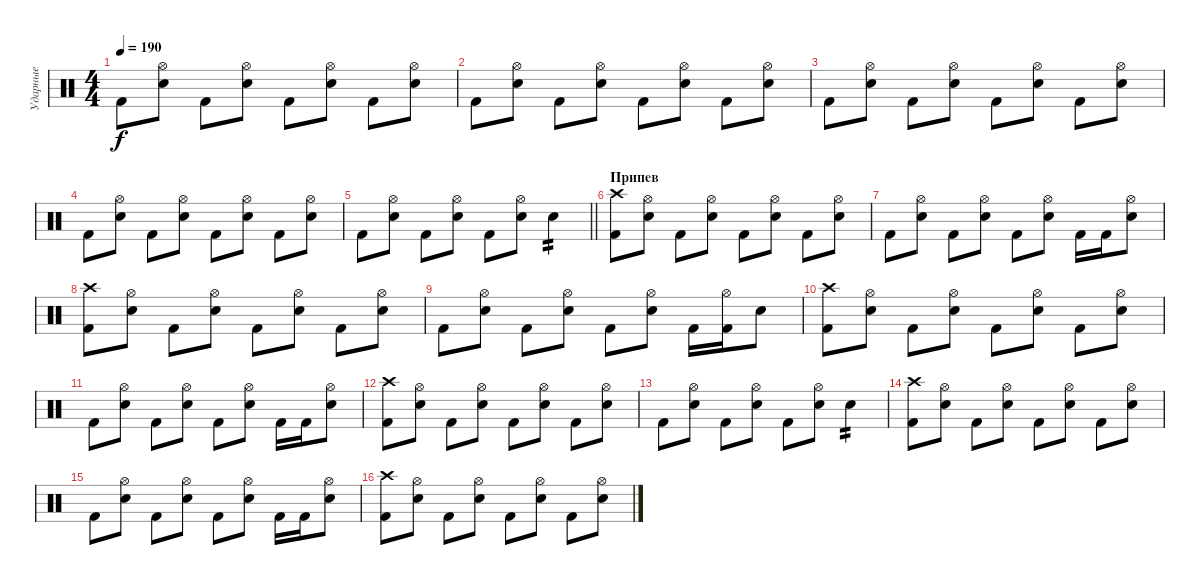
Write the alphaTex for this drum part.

\track ("Ударные" "Ударные") {instrument percussion}
\staff {score}
\articulation defaults
\ts (4 4)
\tempo 190
\clef neutral
\ks c "Kick (hit) 2".8{dy f}
("Hi-Hat (open)" "Electric Snare (hit)").8 "Kick (hit) 2".8 ("Hi-Hat (open)" "Electric Snare (hit)").8 "Kick (hit) 2".8 ("Hi-Hat (open)" "Electric Snare (hit)").8 "Kick (hit) 2".8 ("Hi-Hat (open)" "Electric Snare (hit)").8 |
"Kick (hit) 2".8 ("Hi-Hat (open)" "Electric Snare (hit)").8 "Kick (hit) 2".8 ("Hi-Hat (open)" "Electric Snare (hit)").8 "Kick (hit) 2".8 ("Hi-Hat (open)" "Electric Snare (hit)").8 "Kick (hit) 2".8 ("Hi-Hat (open)" "Electric Snare (hit)").8 |
"Kick (hit) 2".8 ("Hi-Hat (open)" "Electric Snare (hit)").8 "Kick (hit) 2".8 ("Hi-Hat (open)" "Electric Snare (hit)").8 "Kick (hit) 2".8 ("Hi-Hat (open)" "Electric Snare (hit)").8 "Kick (hit) 2".8 ("Hi-Hat (open)" "Electric Snare (hit)").8 |
"Kick (hit) 2".8 ("Hi-Hat (open)" "Electric Snare (hit)").8 "Kick (hit) 2".8 ("Hi-Hat (open)" "Electric Snare (hit)").8 "Kick (hit) 2".8 ("Hi-Hat (open)" "Electric Snare (hit)").8 "Kick (hit) 2".8 ("Hi-Hat (open)" "Electric Snare (hit)").8 |
\barLineRight lightlight "Kick (hit) 2".8
("Hi-Hat (open)" "Electric Snare (hit)").8 "Kick (hit) 2".8 ("Hi-Hat (open)" "Electric Snare (hit)").8 "Kick (hit) 2".8 ("Hi-Hat (open)" "Electric Snare (hit)").8 "Electric Snare (hit)".4{tp 2} |
\section ("" "Припев")
("Crash high (hit)" "Kick (hit) 2").8 ("Hi-Hat (open)" "Electric Snare (hit)").8 "Kick (hit) 2".8 ("Hi-Hat (open)" "Electric Snare (hit)").8 "Kick (hit) 2".8 ("Hi-Hat (open)" "Electric Snare (hit)").8 "Kick (hit) 2".8 ("Hi-Hat (open)" "Electric Snare (hit)").8 |
"Kick (hit) 2".8 ("Hi-Hat (open)" "Electric Snare (hit)").8 "Kick (hit) 2".8 ("Hi-Hat (open)" "Electric Snare (hit)").8 "Kick (hit) 2".8 ("Hi-Hat (open)" "Electric Snare (hit)").8 "Kick (hit) 2".16 "Kick (hit) 2".16 ("Hi-Hat (open)" "Electric Snare (hit)").8 |
("Crash high (hit)" "Kick (hit) 2").8 ("Hi-Hat (open)" "Electric Snare (hit)").8 "Kick (hit) 2".8 ("Hi-Hat (open)" "Electric Snare (hit)").8 "Kick (hit) 2".8 ("Hi-Hat (open)" "Electric Snare (hit)").8 "Kick (hit) 2".8 ("Hi-Hat (open)" "Electric Snare (hit)").8 |
"Kick (hit) 2".8 ("Hi-Hat (open)" "Electric Snare (hit)").8 "Kick (hit) 2".8 ("Hi-Hat (open)" "Electric Snare (hit)").8 "Kick (hit) 2".8 ("Hi-Hat (open)" "Electric Snare (hit)").8 "Kick (hit) 2".16 ("Hi-Hat (open)" "Kick (hit) 2").16 "Electric Snare (hit)".8 |
("Crash high (hit)" "Kick (hit) 2").8 ("Hi-Hat (open)" "Electric Snare (hit)").8 "Kick (hit) 2".8 ("Hi-Hat (open)" "Electric Snare (hit)").8 "Kick (hit) 2".8 ("Hi-Hat (open)" "Electric Snare (hit)").8 "Kick (hit) 2".8 ("Hi-Hat (open)" "Electric Snare (hit)").8 |
"Kick (hit) 2".8 ("Hi-Hat (open)" "Electric Snare (hit)").8 "Kick (hit) 2".8 ("Hi-Hat (open)" "Electric Snare (hit)").8 "Kick (hit) 2".8 ("Hi-Hat (open)" "Electric Snare (hit)").8 "Kick (hit) 2".16 "Kick (hit) 2".16 ("Hi-Hat (open)" "Electric Snare (hit)").8 |
("Crash high (hit)" "Kick (hit) 2").8 ("Hi-Hat (open)" "Electric Snare (hit)").8 "Kick (hit) 2".8 ("Hi-Hat (open)" "Electric Snare (hit)").8 "Kick (hit) 2".8 ("Hi-Hat (open)" "Electric Snare (hit)").8 "Kick (hit) 2".8 ("Hi-Hat (open)" "Electric Snare (hit)").8 |
"Kick (hit) 2".8 ("Hi-Hat (open)" "Electric Snare (hit)").8 "Kick (hit) 2".8 ("Hi-Hat (open)" "Electric Snare (hit)").8 "Kick (hit) 2".8 ("Hi-Hat (open)" "Electric Snare (hit)").8 "Electric Snare (hit)".4{tp 2} |
("Crash high (hit)" "Kick (hit) 2").8 ("Hi-Hat (open)" "Electric Snare (hit)").8 "Kick (hit) 2".8 ("Hi-Hat (open)" "Electric Snare (hit)").8 "Kick (hit) 2".8 ("Hi-Hat (open)" "Electric Snare (hit)").8 "Kick (hit) 2".8 ("Hi-Hat (open)" "Electric Snare (hit)").8 |
"Kick (hit) 2".8 ("Hi-Hat (open)" "Electric Snare (hit)").8 "Kick (hit) 2".8 ("Hi-Hat (open)" "Electric Snare (hit)").8 "Kick (hit) 2".8 ("Hi-Hat (open)" "Electric Snare (hit)").8 "Kick (hit) 2".16 "Kick (hit) 2".16 ("Hi-Hat (open)" "Electric Snare (hit)").8 |
("Crash high (hit)" "Kick (hit) 2").8 ("Hi-Hat (open)" "Electric Snare (hit)").8 "Kick (hit) 2".8 ("Hi-Hat (open)" "Electric Snare (hit)").8 "Kick (hit) 2".8 ("Hi-Hat (open)" "Electric Snare (hit)").8 "Kick (hit) 2".8 ("Hi-Hat (open)" "Electric Snare (hit)").8
